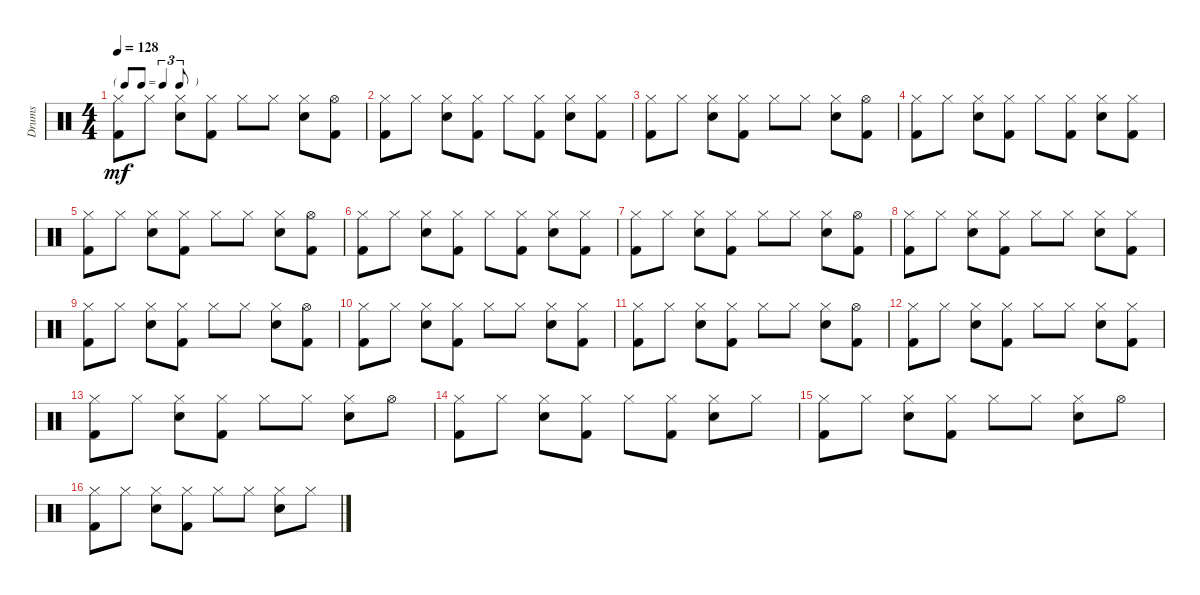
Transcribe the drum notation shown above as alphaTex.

\track ("Drums" "Drums") {instrument percussion}
\staff {score}
\articulation defaults
\ts (4 4)
\tf triplet8th
\tempo 128
\clef neutral
\ks c
("Hi-Hat (closed)" "Kick (hit) 2").8{dy mf} "Hi-Hat (closed)".8 ("Hi-Hat (closed)" "Electric Snare (hit)").8 ("Hi-Hat (closed)" "Kick (hit) 2").8 "Hi-Hat (closed)".8 "Hi-Hat (closed)".8 ("Hi-Hat (closed)" "Electric Snare (hit)").8 ("Hi-Hat (open)" "Kick (hit) 2").8 |
("Hi-Hat (closed)" "Kick (hit) 2").8 "Hi-Hat (closed)".8 ("Hi-Hat (closed)" "Electric Snare (hit)").8 ("Hi-Hat (closed)" "Kick (hit) 2").8 "Hi-Hat (closed)".8 ("Hi-Hat (closed)" "Kick (hit) 2").8 ("Hi-Hat (closed)" "Electric Snare (hit)").8 ("Hi-Hat (closed)" "Kick (hit) 2").8 |
("Hi-Hat (closed)" "Kick (hit) 2").8 "Hi-Hat (closed)".8 ("Hi-Hat (closed)" "Electric Snare (hit)").8 ("Hi-Hat (closed)" "Kick (hit) 2").8 "Hi-Hat (closed)".8 "Hi-Hat (closed)".8 ("Hi-Hat (closed)" "Electric Snare (hit)").8 ("Hi-Hat (open)" "Kick (hit) 2").8 |
("Hi-Hat (closed)" "Kick (hit) 2").8 "Hi-Hat (closed)".8 ("Hi-Hat (closed)" "Electric Snare (hit)").8 ("Hi-Hat (closed)" "Kick (hit) 2").8 "Hi-Hat (closed)".8 ("Hi-Hat (closed)" "Kick (hit) 2").8 ("Hi-Hat (closed)" "Electric Snare (hit)").8 ("Hi-Hat (closed)" "Kick (hit) 2").8 |
("Hi-Hat (closed)" "Kick (hit) 2").8 "Hi-Hat (closed)".8 ("Hi-Hat (closed)" "Electric Snare (hit)").8 ("Hi-Hat (closed)" "Kick (hit) 2").8 "Hi-Hat (closed)".8 "Hi-Hat (closed)".8 ("Hi-Hat (closed)" "Electric Snare (hit)").8 ("Hi-Hat (open)" "Kick (hit) 2").8 |
("Hi-Hat (closed)" "Kick (hit) 2").8 "Hi-Hat (closed)".8 ("Hi-Hat (closed)" "Electric Snare (hit)").8 ("Hi-Hat (closed)" "Kick (hit) 2").8 "Hi-Hat (closed)".8 ("Hi-Hat (closed)" "Kick (hit) 2").8 ("Hi-Hat (closed)" "Electric Snare (hit)").8 ("Hi-Hat (closed)" "Kick (hit) 2").8 |
("Hi-Hat (closed)" "Kick (hit) 2").8 "Hi-Hat (closed)".8 ("Hi-Hat (closed)" "Electric Snare (hit)").8 ("Hi-Hat (closed)" "Kick (hit) 2").8 "Hi-Hat (closed)".8 "Hi-Hat (closed)".8 ("Hi-Hat (closed)" "Electric Snare (hit)").8 ("Hi-Hat (open)" "Kick (hit) 2").8 |
("Hi-Hat (closed)" "Kick (hit) 2").8 "Hi-Hat (closed)".8 ("Hi-Hat (closed)" "Electric Snare (hit)").8 ("Hi-Hat (closed)" "Kick (hit) 2").8 "Hi-Hat (closed)".8 "Hi-Hat (closed)".8 ("Hi-Hat (closed)" "Electric Snare (hit)").8 ("Hi-Hat (closed)" "Kick (hit) 2").8 |
("Hi-Hat (closed)" "Kick (hit) 2").8 "Hi-Hat (closed)".8 ("Hi-Hat (closed)" "Electric Snare (hit)").8 ("Hi-Hat (closed)" "Kick (hit) 2").8 "Hi-Hat (closed)".8 "Hi-Hat (closed)".8 ("Hi-Hat (closed)" "Electric Snare (hit)").8 ("Hi-Hat (open)" "Kick (hit) 2").8 |
("Hi-Hat (closed)" "Kick (hit) 2").8 "Hi-Hat (closed)".8 ("Hi-Hat (closed)" "Electric Snare (hit)").8 ("Hi-Hat (closed)" "Kick (hit) 2").8 "Hi-Hat (closed)".8 "Hi-Hat (closed)".8 ("Hi-Hat (closed)" "Electric Snare (hit)").8 ("Hi-Hat (closed)" "Kick (hit) 2").8 |
("Hi-Hat (closed)" "Kick (hit) 2").8 "Hi-Hat (closed)".8 ("Hi-Hat (closed)" "Electric Snare (hit)").8 ("Hi-Hat (closed)" "Kick (hit) 2").8 "Hi-Hat (closed)".8 "Hi-Hat (closed)".8 ("Hi-Hat (closed)" "Electric Snare (hit)").8 ("Hi-Hat (open)" "Kick (hit) 2").8 |
("Hi-Hat (closed)" "Kick (hit) 2").8 "Hi-Hat (closed)".8 ("Hi-Hat (closed)" "Electric Snare (hit)").8 ("Hi-Hat (closed)" "Kick (hit) 2").8 "Hi-Hat (closed)".8 "Hi-Hat (closed)".8 ("Hi-Hat (closed)" "Electric Snare (hit)").8 ("Hi-Hat (closed)" "Kick (hit) 2").8 |
("Hi-Hat (closed)" "Kick (hit) 2").8 "Hi-Hat (closed)".8 ("Hi-Hat (closed)" "Electric Snare (hit)").8 ("Hi-Hat (closed)" "Kick (hit) 2").8 "Hi-Hat (closed)".8 "Hi-Hat (closed)".8 ("Hi-Hat (closed)" "Electric Snare (hit)").8 "Hi-Hat (open)".8 |
("Hi-Hat (closed)" "Kick (hit) 2").8 "Hi-Hat (closed)".8 ("Hi-Hat (closed)" "Electric Snare (hit)").8 ("Hi-Hat (closed)" "Kick (hit) 2").8 "Hi-Hat (closed)".8 ("Hi-Hat (closed)" "Kick (hit) 2").8 ("Hi-Hat (closed)" "Electric Snare (hit)").8 "Hi-Hat (closed)".8 |
("Hi-Hat (closed)" "Kick (hit) 2").8 "Hi-Hat (closed)".8 ("Hi-Hat (closed)" "Electric Snare (hit)").8 ("Hi-Hat (closed)" "Kick (hit) 2").8 "Hi-Hat (closed)".8 "Hi-Hat (closed)".8 ("Hi-Hat (closed)" "Electric Snare (hit)").8 "Hi-Hat (open)".8 |
("Hi-Hat (closed)" "Kick (hit) 2").8 "Hi-Hat (closed)".8 ("Hi-Hat (closed)" "Electric Snare (hit)").8 ("Hi-Hat (closed)" "Kick (hit) 2").8 "Hi-Hat (closed)".8 "Hi-Hat (closed)".8 ("Hi-Hat (closed)" "Electric Snare (hit)").8 "Hi-Hat (closed)".8
